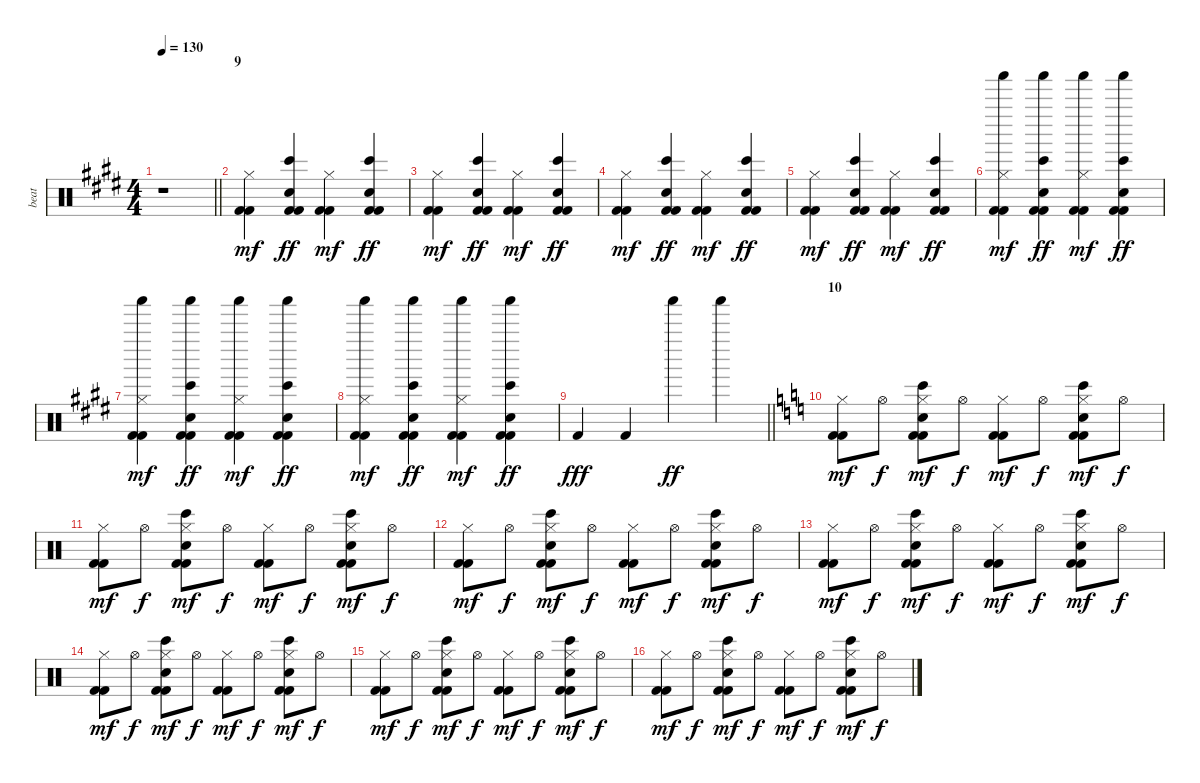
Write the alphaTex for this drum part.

\track ("beat" "beat") {instrument percussion}
\staff {score}
\articulation defaults
\ts (4 4)
\tempo 130
\clef neutral
\barLineRight lightlight
\ks e
r.1{dy fff} |
\section ("" "9")
("Kick (hit) 2" "Kick (hit) 2" "Hi-Hat (closed)").4{dy mf} ("Kick (hit) 2" "Kick (hit) 2" "Bongo High (hit)" "Hand Clap (hit)").4{dy ff} ("Kick (hit) 2" "Kick (hit) 2" "Hi-Hat (closed)").4{dy mf} ("Kick (hit) 2" "Kick (hit) 2" "Bongo High (hit)" "Hand Clap (hit)").4{dy ff} |
("Kick (hit) 2" "Kick (hit) 2" "Hi-Hat (closed)").4{dy mf} ("Kick (hit) 2" "Kick (hit) 2" "Bongo High (hit)" "Hand Clap (hit)").4{dy ff} ("Kick (hit) 2" "Kick (hit) 2" "Hi-Hat (closed)").4{dy mf} ("Kick (hit) 2" "Kick (hit) 2" "Bongo High (hit)" "Hand Clap (hit)").4{dy ff} |
("Kick (hit) 2" "Kick (hit) 2" "Hi-Hat (closed)").4{dy mf} ("Kick (hit) 2" "Kick (hit) 2" "Bongo High (hit)" "Hand Clap (hit)").4{dy ff} ("Kick (hit) 2" "Kick (hit) 2" "Hi-Hat (closed)").4{dy mf} ("Kick (hit) 2" "Kick (hit) 2" "Bongo High (hit)" "Hand Clap (hit)").4{dy ff} |
("Kick (hit) 2" "Kick (hit) 2" "Hi-Hat (closed)").4{dy mf} ("Kick (hit) 2" "Kick (hit) 2" "Bongo High (hit)" "Hand Clap (hit)").4{dy ff} ("Kick (hit) 2" "Kick (hit) 2" "Hi-Hat (closed)").4{dy mf} ("Kick (hit) 2" "Kick (hit) 2" "Bongo High (hit)" "Hand Clap (hit)").4{dy ff} |
("Kick (hit) 2" "Kick (hit) 2" "Shaker (hit)" "Hi-Hat (closed)").4{dy mf} ("Kick (hit) 2" "Kick (hit) 2" "Bongo High (hit)" "Hand Clap (hit)" "Shaker (hit)").4{dy ff} ("Kick (hit) 2" "Kick (hit) 2" "Shaker (hit)" "Hi-Hat (closed)").4{dy mf} ("Kick (hit) 2" "Kick (hit) 2" "Bongo High (hit)" "Hand Clap (hit)" "Shaker (hit)").4{dy ff} |
("Kick (hit) 2" "Kick (hit) 2" "Shaker (hit)" "Hi-Hat (closed)").4{dy mf} ("Kick (hit) 2" "Kick (hit) 2" "Bongo High (hit)" "Hand Clap (hit)" "Shaker (hit)").4{dy ff} ("Kick (hit) 2" "Kick (hit) 2" "Shaker (hit)" "Hi-Hat (closed)").4{dy mf} ("Kick (hit) 2" "Kick (hit) 2" "Bongo High (hit)" "Hand Clap (hit)" "Shaker (hit)").4{dy ff} |
("Kick (hit) 2" "Kick (hit) 2" "Shaker (hit)" "Hi-Hat (closed)").4{dy mf} ("Kick (hit) 2" "Kick (hit) 2" "Bongo High (hit)" "Hand Clap (hit)" "Shaker (hit)").4{dy ff} ("Kick (hit) 2" "Kick (hit) 2" "Shaker (hit)" "Hi-Hat (closed)").4{dy mf} ("Kick (hit) 2" "Kick (hit) 2" "Bongo High (hit)" "Hand Clap (hit)" "Shaker (hit)").4{dy ff} |
\barLineRight lightlight "Kick (hit) 2".4{dy fff} "Kick (hit) 2".4 "Shaker (hit)".4{dy ff} "Shaker (hit)".4
|
\section ("" "10")
\ks c
("Kick (hit) 2" "Kick (hit) 2" "Hi-Hat (closed)").8{dy mf} "Hi-Hat (open)".8{dy f} ("Kick (hit) 2" "Kick (hit) 2" "Bongo High (hit)" "Hand Clap (hit)" "Hi-Hat (closed)").8{dy mf} "Hi-Hat (open)".8{dy f} ("Kick (hit) 2" "Kick (hit) 2" "Hi-Hat (closed)").8{dy mf} "Hi-Hat (open)".8{dy f} ("Kick (hit) 2" "Kick (hit) 2" "Bongo High (hit)" "Hand Clap (hit)" "Hi-Hat (closed)").8{dy mf} "Hi-Hat (open)".8{dy f} |
("Kick (hit) 2" "Kick (hit) 2" "Hi-Hat (closed)").8{dy mf} "Hi-Hat (open)".8{dy f} ("Kick (hit) 2" "Kick (hit) 2" "Bongo High (hit)" "Hand Clap (hit)" "Hi-Hat (closed)").8{dy mf} "Hi-Hat (open)".8{dy f} ("Kick (hit) 2" "Kick (hit) 2" "Hi-Hat (closed)").8{dy mf} "Hi-Hat (open)".8{dy f} ("Kick (hit) 2" "Kick (hit) 2" "Bongo High (hit)" "Hand Clap (hit)" "Hi-Hat (closed)").8{dy mf} "Hi-Hat (open)".8{dy f} |
("Kick (hit) 2" "Kick (hit) 2" "Hi-Hat (closed)").8{dy mf} "Hi-Hat (open)".8{dy f} ("Kick (hit) 2" "Kick (hit) 2" "Bongo High (hit)" "Hand Clap (hit)" "Hi-Hat (closed)").8{dy mf} "Hi-Hat (open)".8{dy f} ("Kick (hit) 2" "Kick (hit) 2" "Hi-Hat (closed)").8{dy mf} "Hi-Hat (open)".8{dy f} ("Kick (hit) 2" "Kick (hit) 2" "Bongo High (hit)" "Hand Clap (hit)" "Hi-Hat (closed)").8{dy mf} "Hi-Hat (open)".8{dy f} |
("Kick (hit) 2" "Kick (hit) 2" "Hi-Hat (closed)").8{dy mf} "Hi-Hat (open)".8{dy f} ("Kick (hit) 2" "Kick (hit) 2" "Bongo High (hit)" "Hand Clap (hit)" "Hi-Hat (closed)").8{dy mf} "Hi-Hat (open)".8{dy f} ("Kick (hit) 2" "Kick (hit) 2" "Hi-Hat (closed)").8{dy mf} "Hi-Hat (open)".8{dy f} ("Kick (hit) 2" "Kick (hit) 2" "Bongo High (hit)" "Hand Clap (hit)" "Hi-Hat (closed)").8{dy mf} "Hi-Hat (open)".8{dy f} |
("Kick (hit) 2" "Kick (hit) 2" "Hi-Hat (closed)").8{dy mf} "Hi-Hat (open)".8{dy f} ("Kick (hit) 2" "Kick (hit) 2" "Bongo High (hit)" "Hand Clap (hit)" "Hi-Hat (closed)").8{dy mf} "Hi-Hat (open)".8{dy f} ("Kick (hit) 2" "Kick (hit) 2" "Hi-Hat (closed)").8{dy mf} "Hi-Hat (open)".8{dy f} ("Kick (hit) 2" "Kick (hit) 2" "Bongo High (hit)" "Hand Clap (hit)" "Hi-Hat (closed)").8{dy mf} "Hi-Hat (open)".8{dy f} |
("Kick (hit) 2" "Kick (hit) 2" "Hi-Hat (closed)").8{dy mf} "Hi-Hat (open)".8{dy f} ("Kick (hit) 2" "Kick (hit) 2" "Bongo High (hit)" "Hand Clap (hit)" "Hi-Hat (closed)").8{dy mf} "Hi-Hat (open)".8{dy f} ("Kick (hit) 2" "Kick (hit) 2" "Hi-Hat (closed)").8{dy mf} "Hi-Hat (open)".8{dy f} ("Kick (hit) 2" "Kick (hit) 2" "Bongo High (hit)" "Hand Clap (hit)" "Hi-Hat (closed)").8{dy mf} "Hi-Hat (open)".8{dy f} |
("Kick (hit) 2" "Kick (hit) 2" "Hi-Hat (closed)").8{dy mf} "Hi-Hat (open)".8{dy f} ("Kick (hit) 2" "Kick (hit) 2" "Bongo High (hit)" "Hand Clap (hit)" "Hi-Hat (closed)").8{dy mf} "Hi-Hat (open)".8{dy f} ("Kick (hit) 2" "Kick (hit) 2" "Hi-Hat (closed)").8{dy mf} "Hi-Hat (open)".8{dy f} ("Kick (hit) 2" "Kick (hit) 2" "Bongo High (hit)" "Hand Clap (hit)" "Hi-Hat (closed)").8{dy mf} "Hi-Hat (open)".8{dy f}
